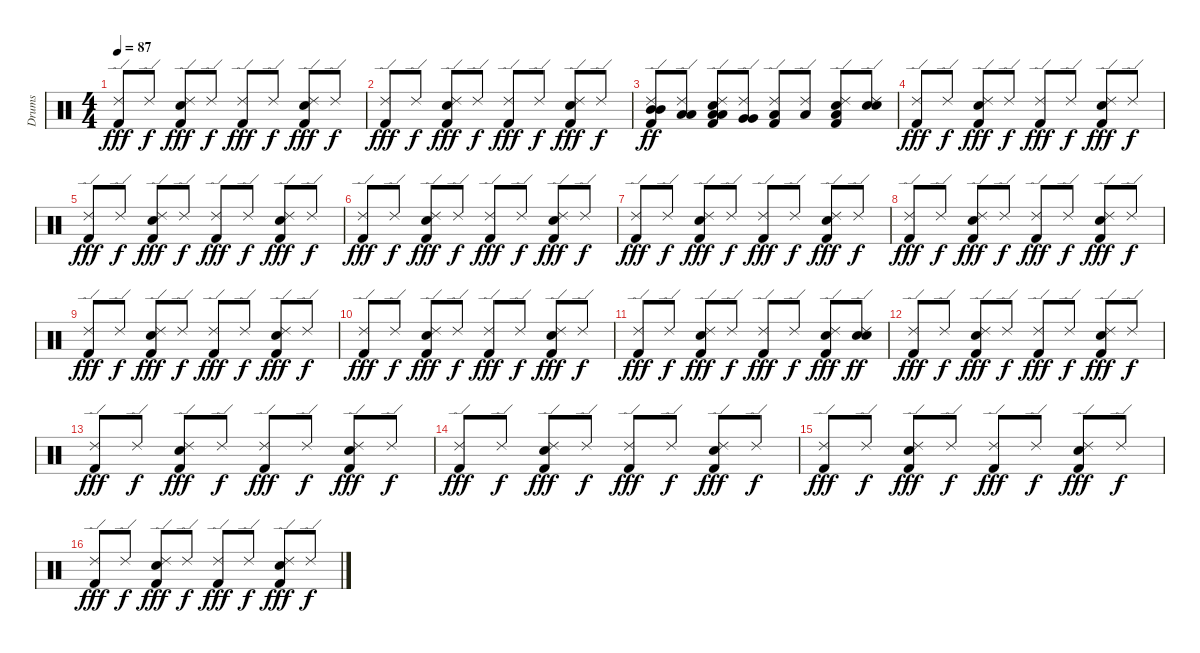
\track ("Drums" "Drums") {instrument percussion}
\staff {score}
\articulation defaults
\ts (4 4)
\tempo 87
\clef neutral
\ks c
("Kick (hit) 2" "Ride (edge) 2").8{dy fff} "Ride (edge) 2".8{dy f} ("Electric Snare (hit)" "Kick (hit) 2" "Ride (edge) 2").8{dy fff} "Ride (edge) 2".8{dy f} ("Kick (hit) 2" "Ride (edge) 2").8{dy fff} "Ride (edge) 2".8{dy f} ("Electric Snare (hit)" "Kick (hit) 2" "Ride (edge) 2").8{dy fff} "Ride (edge) 2".8{dy f} |
("Kick (hit) 2" "Ride (edge) 2").8{dy fff} "Ride (edge) 2".8{dy f} ("Electric Snare (hit)" "Kick (hit) 2" "Ride (edge) 2").8{dy fff} "Ride (edge) 2".8{dy f} ("Kick (hit) 2" "Ride (edge) 2").8{dy fff} "Ride (edge) 2".8{dy f} ("Electric Snare (hit)" "Kick (hit) 2" "Ride (edge) 2").8{dy fff} "Ride (edge) 2".8{dy f} |
("Kick (hit) 2" "Ride (edge) 2" "Mid Tom (hit)" "Mid Tom (hit)").8{dy ff} ("Ride (edge) 2" "Low Tom (hit)" "Low Tom (hit)").8 ("Electric Snare (hit)" "Kick (hit) 2" "Ride (edge) 2" "Low Tom (hit)" "Low Tom (hit)").8 ("Ride (edge) 2" "Very Low Tom (hit)" "Very Low Tom (hit)").8 ("Kick (hit) 2" "Ride (edge) 2" "Low Floor Tom (hit)").8 ("Ride (edge) 2" "Low Floor Tom (hit)").8 ("Electric Snare (hit)" "Kick (hit) 2" "Ride (edge) 2" "Low Floor Tom (hit)").8 ("Electric Snare (hit)" "Ride (edge) 2" "Electric Snare (hit)").8 |
("Kick (hit) 2" "Ride (edge) 2").8{dy fff} "Ride (edge) 2".8{dy f} ("Electric Snare (hit)" "Kick (hit) 2" "Ride (edge) 2").8{dy fff} "Ride (edge) 2".8{dy f} ("Kick (hit) 2" "Ride (edge) 2").8{dy fff} "Ride (edge) 2".8{dy f} ("Electric Snare (hit)" "Kick (hit) 2" "Ride (edge) 2").8{dy fff} "Ride (edge) 2".8{dy f} |
("Kick (hit) 2" "Ride (edge) 2").8{dy fff} "Ride (edge) 2".8{dy f} ("Electric Snare (hit)" "Kick (hit) 2" "Ride (edge) 2").8{dy fff} "Ride (edge) 2".8{dy f} ("Kick (hit) 2" "Ride (edge) 2").8{dy fff} "Ride (edge) 2".8{dy f} ("Electric Snare (hit)" "Kick (hit) 2" "Ride (edge) 2").8{dy fff} "Ride (edge) 2".8{dy f} |
("Kick (hit) 2" "Ride (edge) 2").8{dy fff} "Ride (edge) 2".8{dy f} ("Electric Snare (hit)" "Kick (hit) 2" "Ride (edge) 2").8{dy fff} "Ride (edge) 2".8{dy f} ("Kick (hit) 2" "Ride (edge) 2").8{dy fff} "Ride (edge) 2".8{dy f} ("Electric Snare (hit)" "Kick (hit) 2" "Ride (edge) 2").8{dy fff} "Ride (edge) 2".8{dy f} |
("Kick (hit) 2" "Ride (edge) 2").8{dy fff} "Ride (edge) 2".8{dy f} ("Electric Snare (hit)" "Kick (hit) 2" "Ride (edge) 2").8{dy fff} "Ride (edge) 2".8{dy f} ("Kick (hit) 2" "Ride (edge) 2").8{dy fff} "Ride (edge) 2".8{dy f} ("Electric Snare (hit)" "Kick (hit) 2" "Ride (edge) 2").8{dy fff} "Ride (edge) 2".8{dy f} |
("Kick (hit) 2" "Ride (edge) 2").8{dy fff} "Ride (edge) 2".8{dy f} ("Electric Snare (hit)" "Kick (hit) 2" "Ride (edge) 2").8{dy fff} "Ride (edge) 2".8{dy f} ("Kick (hit) 2" "Ride (edge) 2").8{dy fff} "Ride (edge) 2".8{dy f} ("Electric Snare (hit)" "Kick (hit) 2" "Ride (edge) 2").8{dy fff} "Ride (edge) 2".8{dy f} |
("Kick (hit) 2" "Ride (edge) 2").8{dy fff} "Ride (edge) 2".8{dy f} ("Electric Snare (hit)" "Kick (hit) 2" "Ride (edge) 2").8{dy fff} "Ride (edge) 2".8{dy f} ("Kick (hit) 2" "Ride (edge) 2").8{dy fff} "Ride (edge) 2".8{dy f} ("Electric Snare (hit)" "Kick (hit) 2" "Ride (edge) 2").8{dy fff} "Ride (edge) 2".8{dy f} |
("Kick (hit) 2" "Ride (edge) 2").8{dy fff} "Ride (edge) 2".8{dy f} ("Electric Snare (hit)" "Kick (hit) 2" "Ride (edge) 2").8{dy fff} "Ride (edge) 2".8{dy f} ("Kick (hit) 2" "Ride (edge) 2").8{dy fff} "Ride (edge) 2".8{dy f} ("Electric Snare (hit)" "Kick (hit) 2" "Ride (edge) 2").8{dy fff} "Ride (edge) 2".8{dy f} |
("Kick (hit) 2" "Ride (edge) 2").8{dy fff} "Ride (edge) 2".8{dy f} ("Electric Snare (hit)" "Kick (hit) 2" "Ride (edge) 2").8{dy fff} "Ride (edge) 2".8{dy f} ("Kick (hit) 2" "Ride (edge) 2").8{dy fff} "Ride (edge) 2".8{dy f} ("Electric Snare (hit)" "Kick (hit) 2" "Ride (edge) 2").8{dy fff} ("Electric Snare (hit)" "Ride (edge) 2" "Electric Snare (hit)").8{dy ff} |
("Kick (hit) 2" "Ride (edge) 2").8{dy fff} "Ride (edge) 2".8{dy f} ("Electric Snare (hit)" "Kick (hit) 2" "Ride (edge) 2").8{dy fff} "Ride (edge) 2".8{dy f} ("Kick (hit) 2" "Ride (edge) 2").8{dy fff} "Ride (edge) 2".8{dy f} ("Electric Snare (hit)" "Kick (hit) 2" "Ride (edge) 2").8{dy fff} "Ride (edge) 2".8{dy f} |
("Kick (hit) 2" "Ride (edge) 2").8{dy fff} "Ride (edge) 2".8{dy f} ("Electric Snare (hit)" "Kick (hit) 2" "Ride (edge) 2").8{dy fff} "Ride (edge) 2".8{dy f} ("Kick (hit) 2" "Ride (edge) 2").8{dy fff} "Ride (edge) 2".8{dy f} ("Electric Snare (hit)" "Kick (hit) 2" "Ride (edge) 2").8{dy fff} "Ride (edge) 2".8{dy f} |
("Kick (hit) 2" "Ride (edge) 2").8{dy fff} "Ride (edge) 2".8{dy f} ("Electric Snare (hit)" "Kick (hit) 2" "Ride (edge) 2").8{dy fff} "Ride (edge) 2".8{dy f} ("Kick (hit) 2" "Ride (edge) 2").8{dy fff} "Ride (edge) 2".8{dy f} ("Electric Snare (hit)" "Kick (hit) 2" "Ride (edge) 2").8{dy fff} "Ride (edge) 2".8{dy f} |
("Kick (hit) 2" "Ride (edge) 2").8{dy fff} "Ride (edge) 2".8{dy f} ("Electric Snare (hit)" "Kick (hit) 2" "Ride (edge) 2").8{dy fff} "Ride (edge) 2".8{dy f} ("Kick (hit) 2" "Ride (edge) 2").8{dy fff} "Ride (edge) 2".8{dy f} ("Electric Snare (hit)" "Kick (hit) 2" "Ride (edge) 2").8{dy fff} "Ride (edge) 2".8{dy f} |
("Kick (hit) 2" "Ride (edge) 2").8{dy fff} "Ride (edge) 2".8{dy f} ("Electric Snare (hit)" "Kick (hit) 2" "Ride (edge) 2").8{dy fff} "Ride (edge) 2".8{dy f} ("Kick (hit) 2" "Ride (edge) 2").8{dy fff} "Ride (edge) 2".8{dy f} ("Electric Snare (hit)" "Kick (hit) 2" "Ride (edge) 2").8{dy fff} "Ride (edge) 2".8{dy f}
